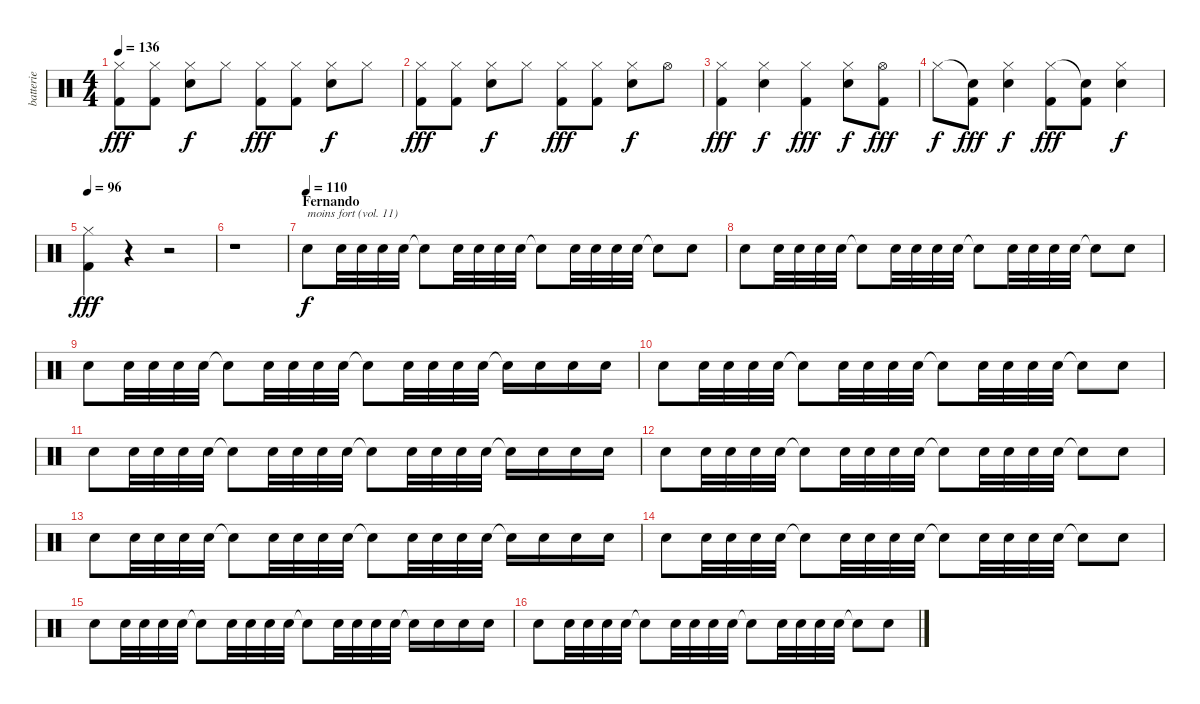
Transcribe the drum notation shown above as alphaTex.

\track ("batterie" "batterie") {instrument percussion}
\staff {score}
\articulation defaults
\ts (4 4)
\tempo 136
\clef neutral
\ks c
("Hi-Hat (closed)" "Kick (hit) 2").8{dy fff} ("Hi-Hat (closed)" "Kick (hit) 2").8 ("Hi-Hat (closed)" "Electric Snare (hit)").8{dy f} "Hi-Hat (closed)".8 ("Hi-Hat (closed)" "Kick (hit) 2").8{dy fff} ("Hi-Hat (closed)" "Kick (hit) 2").8 ("Hi-Hat (closed)" "Electric Snare (hit)").8{dy f} "Hi-Hat (closed)".8 |
("Hi-Hat (closed)" "Kick (hit) 2").8{dy fff} ("Hi-Hat (closed)" "Kick (hit) 2").8 ("Hi-Hat (closed)" "Electric Snare (hit)").8{dy f} "Hi-Hat (closed)".8 ("Hi-Hat (closed)" "Kick (hit) 2").8{dy fff} ("Hi-Hat (closed)" "Kick (hit) 2").8 ("Hi-Hat (closed)" "Electric Snare (hit)").8{dy f} "Hi-Hat (open)".8 |
("Hi-Hat (closed)" "Kick (hit) 2").4{dy fff} ("Hi-Hat (closed)" "Electric Snare (hit)").4{dy f} ("Hi-Hat (closed)" "Kick (hit) 2").4{dy fff} ("Hi-Hat (closed)" "Electric Snare (hit)").8{dy f} ("Hi-Hat (open)" "Kick (hit) 2").8{dy fff} |
"Hi-Hat (closed)".8{dy f} ("Snare (hit)"{t} "Kick (hit) 2").8{dy fff} ("Hi-Hat (closed)" "Electric Snare (hit)").4{dy f} ("Hi-Hat (closed)" "Kick (hit) 2").8{dy fff} ("Snare (hit)"{t} "Kick (hit) 2").8 ("Hi-Hat (closed)" "Electric Snare (hit)").4{dy f} |
\tempo 96
("Hi-Hat (closed)" "Kick (hit) 2").4{dy fff} r.4 r.2 |
r.1 |
\section ("" "Fernando")
\tempo (110)
"Electric Snare (hit)".8{txt "moins fort (vol. 11)" dy f volume 11} "Electric Snare (hit)".32 "Electric Snare (hit)".32 "Electric Snare (hit)".32 "Electric Snare (hit)".32 "Electric Snare (hit)"{t}.8 "Electric Snare (hit)".32 "Electric Snare (hit)".32 "Electric Snare (hit)".32 "Electric Snare (hit)".32 "Snare (hit)"{t}.8 "Electric Snare (hit)".32 "Electric Snare (hit)".32 "Electric Snare (hit)".32 "Electric Snare (hit)".32 "Snare (hit)"{t}.8 "Electric Snare (hit)".8 |
"Electric Snare (hit)".8 "Electric Snare (hit)".32 "Electric Snare (hit)".32 "Electric Snare (hit)".32 "Electric Snare (hit)".32 "Electric Snare (hit)"{t}.8 "Electric Snare (hit)".32 "Electric Snare (hit)".32 "Electric Snare (hit)".32 "Electric Snare (hit)".32 "Snare (hit)"{t}.8 "Electric Snare (hit)".32 "Electric Snare (hit)".32 "Electric Snare (hit)".32 "Electric Snare (hit)".32 "Snare (hit)"{t}.8 "Electric Snare (hit)".8 |
"Electric Snare (hit)".8 "Electric Snare (hit)".32 "Electric Snare (hit)".32 "Electric Snare (hit)".32 "Electric Snare (hit)".32 "Electric Snare (hit)"{t}.8 "Electric Snare (hit)".32 "Electric Snare (hit)".32 "Electric Snare (hit)".32 "Electric Snare (hit)".32 "Snare (hit)"{t}.8 "Electric Snare (hit)".32 "Electric Snare (hit)".32 "Electric Snare (hit)".32 "Electric Snare (hit)".32 "Snare (hit)"{t}.16 "Electric Snare (hit)".16 "Electric Snare (hit)".16 "Electric Snare (hit)".16 |
"Electric Snare (hit)".8 "Electric Snare (hit)".32 "Electric Snare (hit)".32 "Electric Snare (hit)".32 "Electric Snare (hit)".32 "Electric Snare (hit)"{t}.8 "Electric Snare (hit)".32 "Electric Snare (hit)".32 "Electric Snare (hit)".32 "Electric Snare (hit)".32 "Snare (hit)"{t}.8 "Electric Snare (hit)".32 "Electric Snare (hit)".32 "Electric Snare (hit)".32 "Electric Snare (hit)".32 "Snare (hit)"{t}.8 "Electric Snare (hit)".8 |
"Electric Snare (hit)".8 "Electric Snare (hit)".32 "Electric Snare (hit)".32 "Electric Snare (hit)".32 "Electric Snare (hit)".32 "Electric Snare (hit)"{t}.8 "Electric Snare (hit)".32 "Electric Snare (hit)".32 "Electric Snare (hit)".32 "Electric Snare (hit)".32 "Snare (hit)"{t}.8 "Electric Snare (hit)".32 "Electric Snare (hit)".32 "Electric Snare (hit)".32 "Electric Snare (hit)".32 "Snare (hit)"{t}.16 "Electric Snare (hit)".16 "Electric Snare (hit)".16 "Electric Snare (hit)".16 |
"Electric Snare (hit)".8 "Electric Snare (hit)".32 "Electric Snare (hit)".32 "Electric Snare (hit)".32 "Electric Snare (hit)".32 "Electric Snare (hit)"{t}.8 "Electric Snare (hit)".32 "Electric Snare (hit)".32 "Electric Snare (hit)".32 "Electric Snare (hit)".32 "Snare (hit)"{t}.8 "Electric Snare (hit)".32 "Electric Snare (hit)".32 "Electric Snare (hit)".32 "Electric Snare (hit)".32 "Snare (hit)"{t}.8 "Electric Snare (hit)".8 |
"Electric Snare (hit)".8 "Electric Snare (hit)".32 "Electric Snare (hit)".32 "Electric Snare (hit)".32 "Electric Snare (hit)".32 "Electric Snare (hit)"{t}.8 "Electric Snare (hit)".32 "Electric Snare (hit)".32 "Electric Snare (hit)".32 "Electric Snare (hit)".32 "Snare (hit)"{t}.8 "Electric Snare (hit)".32 "Electric Snare (hit)".32 "Electric Snare (hit)".32 "Electric Snare (hit)".32 "Snare (hit)"{t}.16 "Electric Snare (hit)".16 "Electric Snare (hit)".16 "Electric Snare (hit)".16 |
"Electric Snare (hit)".8 "Electric Snare (hit)".32 "Electric Snare (hit)".32 "Electric Snare (hit)".32 "Electric Snare (hit)".32 "Electric Snare (hit)"{t}.8 "Electric Snare (hit)".32 "Electric Snare (hit)".32 "Electric Snare (hit)".32 "Electric Snare (hit)".32 "Snare (hit)"{t}.8 "Electric Snare (hit)".32 "Electric Snare (hit)".32 "Electric Snare (hit)".32 "Electric Snare (hit)".32 "Snare (hit)"{t}.8 "Electric Snare (hit)".8 |
"Electric Snare (hit)".8 "Electric Snare (hit)".32 "Electric Snare (hit)".32 "Electric Snare (hit)".32 "Electric Snare (hit)".32 "Electric Snare (hit)"{t}.8 "Electric Snare (hit)".32 "Electric Snare (hit)".32 "Electric Snare (hit)".32 "Electric Snare (hit)".32 "Snare (hit)"{t}.8 "Electric Snare (hit)".32 "Electric Snare (hit)".32 "Electric Snare (hit)".32 "Electric Snare (hit)".32 "Snare (hit)"{t}.16 "Electric Snare (hit)".16 "Electric Snare (hit)".16 "Electric Snare (hit)".16 |
"Electric Snare (hit)".8 "Electric Snare (hit)".32 "Electric Snare (hit)".32 "Electric Snare (hit)".32 "Electric Snare (hit)".32 "Electric Snare (hit)"{t}.8 "Electric Snare (hit)".32 "Electric Snare (hit)".32 "Electric Snare (hit)".32 "Electric Snare (hit)".32 "Snare (hit)"{t}.8 "Electric Snare (hit)".32 "Electric Snare (hit)".32 "Electric Snare (hit)".32 "Electric Snare (hit)".32 "Snare (hit)"{t}.8 "Electric Snare (hit)".8
